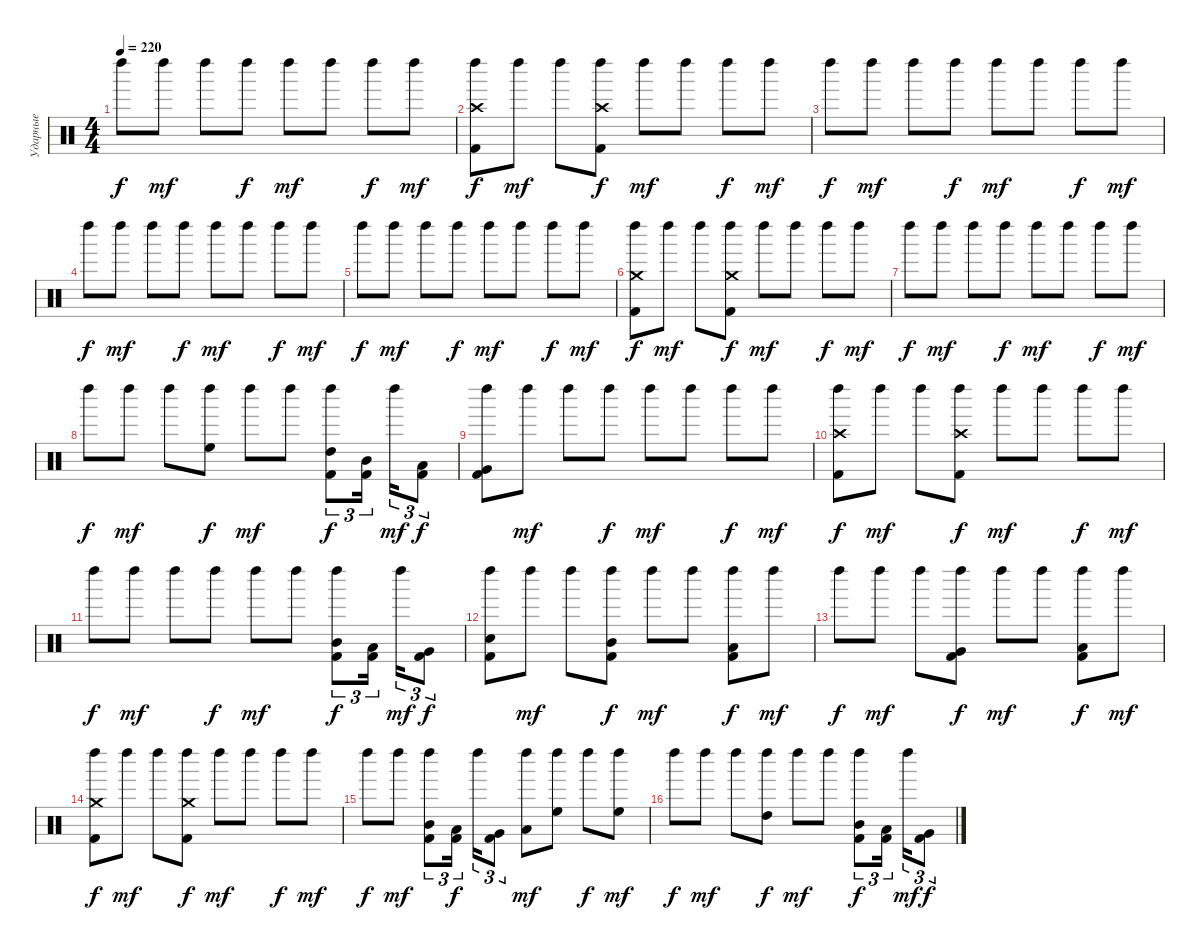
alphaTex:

\track ("Ударные" "Ударные") {instrument percussion}
\staff {score}
\articulation defaults
\ts (4 4)
\tempo 220
\clef neutral
\ks c "Left Maraca (hit)".8{dy f} "Left Maraca (hit)".8{dy mf} "Left Maraca (hit)".8 "Left Maraca (hit)".8{dy f} "Left Maraca (hit)".8{dy mf} "Left Maraca (hit)".8 "Left Maraca (hit)".8{dy f} "Left Maraca (hit)".8{dy mf}
|
("Crash high (hit)" "Kick (hit) 2" "Left Maraca (hit)").8{dy f} "Left Maraca (hit)".8{dy mf} "Left Maraca (hit)".8 ("Crash high (hit)" "Kick (hit) 2" "Left Maraca (hit)").8{dy f} "Left Maraca (hit)".8{dy mf} "Left Maraca (hit)".8 "Left Maraca (hit)".8{dy f} "Left Maraca (hit)".8{dy mf} |
"Left Maraca (hit)".8{dy f} "Left Maraca (hit)".8{dy mf} "Left Maraca (hit)".8 "Left Maraca (hit)".8{dy f} "Left Maraca (hit)".8{dy mf} "Left Maraca (hit)".8 "Left Maraca (hit)".8{dy f} "Left Maraca (hit)".8{dy mf} |
"Left Maraca (hit)".8{dy f} "Left Maraca (hit)".8{dy mf} "Left Maraca (hit)".8 "Left Maraca (hit)".8{dy f} "Left Maraca (hit)".8{dy mf} "Left Maraca (hit)".8 "Left Maraca (hit)".8{dy f} "Left Maraca (hit)".8{dy mf} |
"Left Maraca (hit)".8{dy f} "Left Maraca (hit)".8{dy mf} "Left Maraca (hit)".8 "Left Maraca (hit)".8{dy f} "Left Maraca (hit)".8{dy mf} "Left Maraca (hit)".8 "Left Maraca (hit)".8{dy f} "Left Maraca (hit)".8{dy mf} |
("Left Maraca (hit)" "Kick (hit) 2" "Crash medium (hit)").8{dy f} "Left Maraca (hit)".8{dy mf} "Left Maraca (hit)".8 ("Left Maraca (hit)" "Crash medium (hit)" "Kick (hit) 2").8{dy f} "Left Maraca (hit)".8{dy mf} "Left Maraca (hit)".8 "Left Maraca (hit)".8{dy f} "Left Maraca (hit)".8{dy mf} |
"Left Maraca (hit)".8{dy f} "Left Maraca (hit)".8{dy mf} "Left Maraca (hit)".8 "Left Maraca (hit)".8{dy f} "Left Maraca (hit)".8{dy mf} "Left Maraca (hit)".8 "Left Maraca (hit)".8{dy f} "Left Maraca (hit)".8{dy mf} |
"Left Maraca (hit)".8{dy f} "Left Maraca (hit)".8{dy mf} "Left Maraca (hit)".8 ("High Floor Tom (hit)" "Left Maraca (hit)").8{dy f} "Left Maraca (hit)".8{dy mf} "Left Maraca (hit)".8 ("Kick (hit) 2" "High Tom (hit)" "Left Maraca (hit)").8{tu (3 2) dy f} ("Kick (hit) 2" "Mid Tom (hit)").16{tu (3 2) beam splitsecondary} "Left Maraca (hit)".16{tu (3 2) dy mf} ("Kick (hit) 2" "Low Tom (hit)").8{tu (3 2) dy f} |
("Kick (hit) 2" "Very Low Tom (hit)" "Left Maraca (hit)").8 "Left Maraca (hit)".8{dy mf} "Left Maraca (hit)".8 "Left Maraca (hit)".8{dy f} "Left Maraca (hit)".8{dy mf} "Left Maraca (hit)".8 "Left Maraca (hit)".8{dy f} "Left Maraca (hit)".8{dy mf} |
("Kick (hit) 2" "Crash high (hit)" "Left Maraca (hit)").8{dy f} "Left Maraca (hit)".8{dy mf} "Left Maraca (hit)".8 ("Crash high (hit)" "Left Maraca (hit)" "Kick (hit) 2").8{dy f} "Left Maraca (hit)".8{dy mf} "Left Maraca (hit)".8 "Left Maraca (hit)".8{dy f} "Left Maraca (hit)".8{dy mf} |
"Left Maraca (hit)".8{dy f} "Left Maraca (hit)".8{dy mf} "Left Maraca (hit)".8 "Left Maraca (hit)".8{dy f} "Left Maraca (hit)".8{dy mf} "Left Maraca (hit)".8 ("Kick (hit) 2" "Mid Tom (hit)" "Left Maraca (hit)").8{tu (3 2) dy f} ("Kick (hit) 2" "Low Tom (hit)").16{tu (3 2) beam splitsecondary} "Left Maraca (hit)".16{tu (3 2) dy mf} ("Kick (hit) 2" "Very Low Tom (hit)").8{tu (3 2) dy f} |
("Kick (hit) 2" "Electric Snare (hit)" "Left Maraca (hit)").8 "Left Maraca (hit)".8{dy mf} "Left Maraca (hit)".8 ("Kick (hit) 2" "Mid Tom (hit)" "Left Maraca (hit)").8{dy f} "Left Maraca (hit)".8{dy mf} "Left Maraca (hit)".8 ("Kick (hit) 2" "Low Tom (hit)" "Left Maraca (hit)").8{dy f} "Left Maraca (hit)".8{dy mf} |
"Left Maraca (hit)".8{dy f} "Left Maraca (hit)".8{dy mf} "Left Maraca (hit)".8 ("Kick (hit) 2" "Very Low Tom (hit)" "Left Maraca (hit)").8{dy f} "Left Maraca (hit)".8{dy mf} "Left Maraca (hit)".8 ("Kick (hit) 2" "Low Floor Tom (hit)" "Left Maraca (hit)").8{dy f} "Left Maraca (hit)".8{dy mf} |
("Left Maraca (hit)" "Crash medium (hit)" "Kick (hit) 2").8{dy f} "Left Maraca (hit)".8{dy mf} "Left Maraca (hit)".8 ("Left Maraca (hit)" "Crash medium (hit)" "Kick (hit) 2").8{dy f} "Left Maraca (hit)".8{dy mf} "Left Maraca (hit)".8 "Left Maraca (hit)".8{dy f} "Left Maraca (hit)".8{dy mf} |
"Left Maraca (hit)".8{dy f} "Left Maraca (hit)".8{dy mf} ("Kick (hit) 2" "Mid Tom (hit)" "Left Maraca (hit)").8{tu (3 2)} ("Kick (hit) 2" "Low Tom (hit)").16{tu (3 2) dy f beam splitsecondary} "Left Maraca (hit)".16{tu (3 2)} ("Kick (hit) 2" "Very Low Tom (hit)").8{tu (3 2)} ("Low Floor Tom (hit)" "Left Maraca (hit)").8{dy mf} ("High Floor Tom (hit)" "Left Maraca (hit)").8 "Left Maraca (hit)".8{dy f} ("High Floor Tom (hit)" "Left Maraca (hit)").8{dy mf} |
"Left Maraca (hit)".8{dy f} "Left Maraca (hit)".8{dy mf} "Left Maraca (hit)".8 ("High Tom (hit)" "Left Maraca (hit)").8{dy f} "Left Maraca (hit)".8{dy mf} "Left Maraca (hit)".8 ("Kick (hit) 2" "Mid Tom (hit)" "Left Maraca (hit)").8{tu (3 2) dy f} ("Kick (hit) 2" "Low Tom (hit)").16{tu (3 2) beam splitsecondary} "Left Maraca (hit)".16{tu (3 2) dy mf} ("Kick (hit) 2" "Very Low Tom (hit)").8{tu (3 2) dy f}
